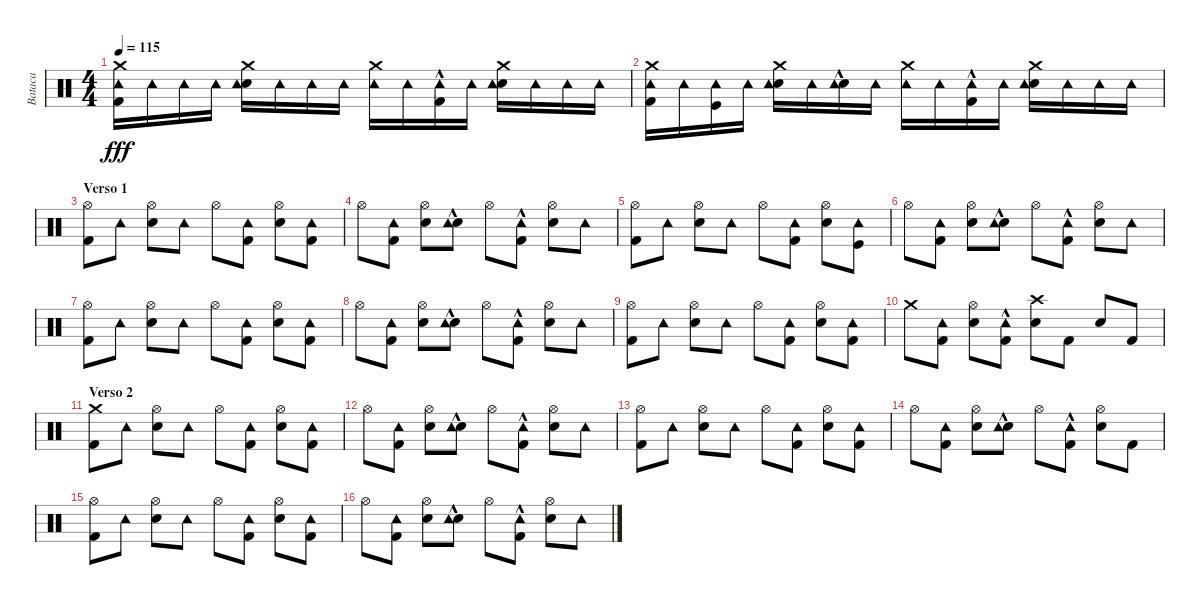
\track ("Bataca" "Bataca") {instrument percussion}
\staff {score}
\articulation defaults
\ts (4 4)
\tempo 115
\clef neutral
\ks c
("Kick (hit) 2" "Tambourine (hit)" "Crash medium (hit)").16{dy fff} "Tambourine (hit)".16 "Tambourine (hit)".16 "Tambourine (hit)".16 ("Snare (hit) 2" "Tambourine (hit)" "Crash medium (hit)").16 "Tambourine (hit)".16 "Tambourine (hit)".16 "Tambourine (hit)".16 ("Tambourine (hit)" "Crash medium (hit)").16 "Tambourine (hit)".16 ("Kick (hit) 2"{hac} "Tambourine (hit)").16 "Tambourine (hit)".16 ("Snare (hit) 2" "Tambourine (hit)" "Crash medium (hit)").16 "Tambourine (hit)".16 "Tambourine (hit)".16 "Tambourine (hit)".16 |
("Kick (hit) 2" "Tambourine (hit)" "Crash medium (hit)").16 "Tambourine (hit)".16 ("Kick (hit)" "Tambourine (hit)").16 "Tambourine (hit)".16 ("Snare (hit) 2" "Tambourine (hit)" "Crash medium (hit)").16 "Tambourine (hit)".16 ("Snare (hit) 2"{hac} "Tambourine (hit)").16 "Tambourine (hit)".16 ("Tambourine (hit)" "Crash medium (hit)").16 "Tambourine (hit)".16 ("Kick (hit) 2"{hac} "Tambourine (hit)").16 "Tambourine (hit)".16 ("Snare (hit) 2" "Tambourine (hit)" "Crash medium (hit)").16 "Tambourine (hit)".16 "Tambourine (hit)".16 "Tambourine (hit)".16 |
\section ("" "Verso 1")
("Kick (hit) 2" "Hi-Hat (open)").8 "Tambourine (hit)".8 ("Snare (hit) 2" "Hi-Hat (open)").8 "Tambourine (hit)".8 "Hi-Hat (open)".8 ("Kick (hit) 2" "Tambourine (hit)").8 ("Snare (hit) 2" "Hi-Hat (open)").8 ("Kick (hit) 2" "Tambourine (hit)").8 |
"Hi-Hat (open)".8 ("Kick (hit) 2" "Tambourine (hit)").8 ("Snare (hit) 2" "Hi-Hat (open)").8 ("Snare (hit) 2"{hac} "Tambourine (hit)").8 "Hi-Hat (open)".8 ("Kick (hit) 2"{hac} "Tambourine (hit)").8 ("Snare (hit) 2" "Hi-Hat (open)").8 "Tambourine (hit)".8 |
("Kick (hit) 2" "Hi-Hat (open)").8 "Tambourine (hit)".8 ("Snare (hit) 2" "Hi-Hat (open)").8 "Tambourine (hit)".8 "Hi-Hat (open)".8 ("Kick (hit) 2" "Tambourine (hit)").8 ("Snare (hit) 2" "Hi-Hat (open)").8 ("Kick (hit)" "Tambourine (hit)").8 |
"Hi-Hat (open)".8 ("Kick (hit) 2" "Tambourine (hit)").8 ("Snare (hit) 2" "Hi-Hat (open)").8 ("Snare (hit) 2"{hac} "Tambourine (hit)").8 "Hi-Hat (open)".8 ("Kick (hit) 2"{hac} "Tambourine (hit)").8 ("Snare (hit) 2" "Hi-Hat (open)").8 "Tambourine (hit)".8 |
("Kick (hit) 2" "Hi-Hat (open)").8 "Tambourine (hit)".8 ("Snare (hit) 2" "Hi-Hat (open)").8 "Tambourine (hit)".8 "Hi-Hat (open)".8 ("Kick (hit) 2" "Tambourine (hit)").8 ("Snare (hit) 2" "Hi-Hat (open)").8 ("Kick (hit) 2" "Tambourine (hit)").8 |
"Hi-Hat (open)".8 ("Kick (hit) 2" "Tambourine (hit)").8 ("Snare (hit) 2" "Hi-Hat (open)").8 ("Snare (hit) 2"{hac} "Tambourine (hit)").8 "Hi-Hat (open)".8 ("Kick (hit) 2"{hac} "Tambourine (hit)").8 ("Snare (hit) 2" "Hi-Hat (open)").8 "Tambourine (hit)".8 |
("Kick (hit) 2" "Hi-Hat (open)").8 "Tambourine (hit)".8 ("Snare (hit) 2" "Hi-Hat (open)").8 "Tambourine (hit)".8 "Hi-Hat (open)".8 ("Kick (hit) 2" "Tambourine (hit)").8 ("Snare (hit) 2" "Hi-Hat (open)").8 ("Kick (hit) 2" "Tambourine (hit)").8 |
"Crash medium (hit)".8 ("Kick (hit) 2" "Tambourine (hit)").8 ("Snare (hit) 2" "Hi-Hat (open)").8 ("Kick (hit) 2" "Tambourine (hit)"{hac}).8 ("Snare (hit) 2" "Crash high (hit)").8 "Kick (hit) 2".8 "Snare (hit) 2".8 "Kick (hit) 2".8 |
\section ("" "Verso 2")
("Kick (hit) 2" "Crash medium (hit)").8 "Tambourine (hit)".8 ("Snare (hit) 2" "Hi-Hat (open)").8 "Tambourine (hit)".8 "Hi-Hat (open)".8 ("Kick (hit) 2" "Tambourine (hit)").8 ("Snare (hit) 2" "Hi-Hat (open)").8 ("Kick (hit) 2" "Tambourine (hit)").8 |
"Hi-Hat (open)".8 ("Kick (hit) 2" "Tambourine (hit)").8 ("Snare (hit) 2" "Hi-Hat (open)").8 ("Snare (hit) 2"{hac} "Tambourine (hit)").8 "Hi-Hat (open)".8 ("Kick (hit) 2"{hac} "Tambourine (hit)").8 ("Snare (hit) 2" "Hi-Hat (open)").8 "Tambourine (hit)".8 |
("Kick (hit) 2" "Hi-Hat (open)").8 "Tambourine (hit)".8 ("Snare (hit) 2" "Hi-Hat (open)").8 "Tambourine (hit)".8 "Hi-Hat (open)".8 ("Kick (hit) 2" "Tambourine (hit)").8 ("Snare (hit) 2" "Hi-Hat (open)").8 ("Kick (hit) 2" "Tambourine (hit)").8 |
"Hi-Hat (open)".8 ("Kick (hit) 2" "Tambourine (hit)").8 ("Snare (hit) 2" "Hi-Hat (open)").8 ("Snare (hit) 2"{hac} "Tambourine (hit)").8 "Hi-Hat (open)".8 ("Kick (hit) 2"{hac} "Tambourine (hit)").8 ("Snare (hit) 2" "Hi-Hat (open)").8 "Kick (hit) 2".8 |
("Kick (hit) 2" "Hi-Hat (open)").8 "Tambourine (hit)".8 ("Snare (hit) 2" "Hi-Hat (open)").8 "Tambourine (hit)".8 "Hi-Hat (open)".8 ("Kick (hit) 2" "Tambourine (hit)").8 ("Snare (hit) 2" "Hi-Hat (open)").8 ("Kick (hit) 2" "Tambourine (hit)").8 |
"Hi-Hat (open)".8 ("Kick (hit) 2" "Tambourine (hit)").8 ("Snare (hit) 2" "Hi-Hat (open)").8 ("Snare (hit) 2"{hac} "Tambourine (hit)").8 "Hi-Hat (open)".8 ("Kick (hit) 2"{hac} "Tambourine (hit)").8 ("Snare (hit) 2" "Hi-Hat (open)").8 "Tambourine (hit)".8
